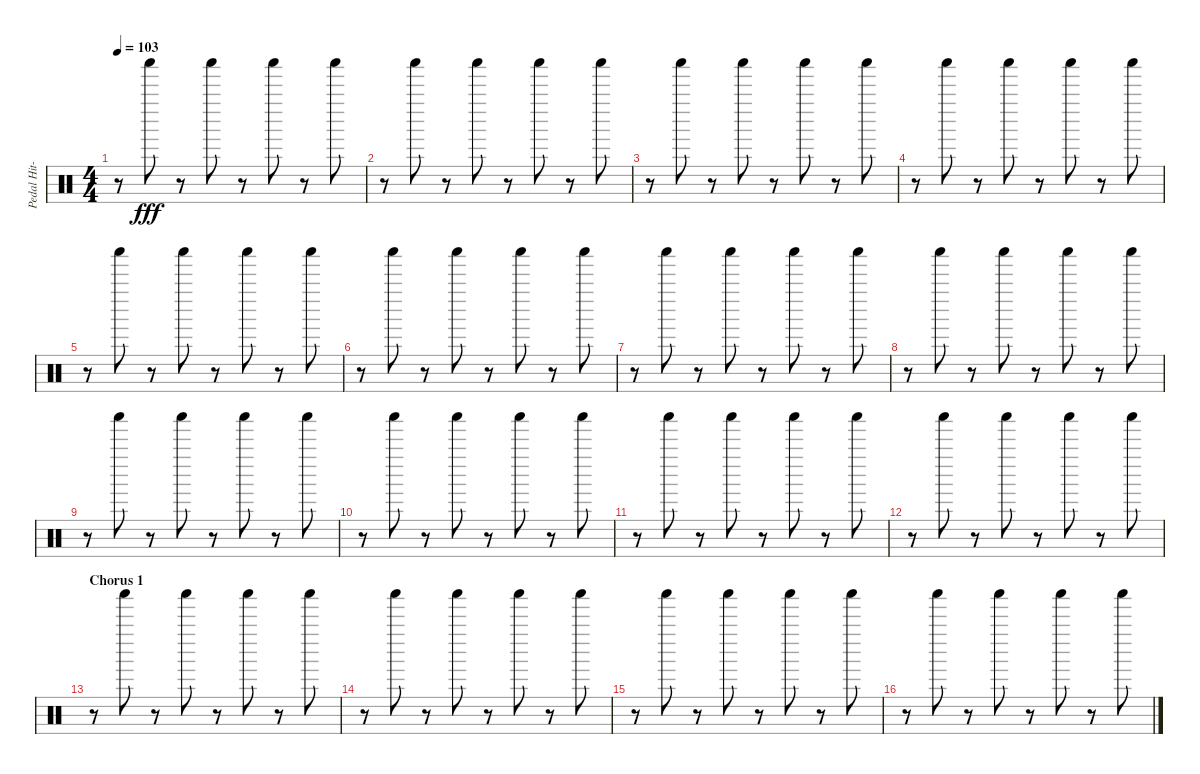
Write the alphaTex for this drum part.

\track ("Pedal Hit-Hat" "Pedal Hit-") {instrument percussion}
\staff {score}
\articulation defaults
\ts (4 4)
\tempo 103
\clef neutral
\ks c
r.8{dy fff} "Shaker (hit)".8 r.8 "Shaker (hit)".8 r.8 "Shaker (hit)".8 r.8 "Shaker (hit)".8 |
r.8 "Shaker (hit)".8 r.8 "Shaker (hit)".8 r.8 "Shaker (hit)".8 r.8 "Shaker (hit)".8 |
r.8 "Shaker (hit)".8 r.8 "Shaker (hit)".8 r.8 "Shaker (hit)".8 r.8 "Shaker (hit)".8 |
r.8 "Shaker (hit)".8 r.8 "Shaker (hit)".8 r.8 "Shaker (hit)".8 r.8 "Shaker (hit)".8 |
r.8 "Shaker (hit)".8 r.8 "Shaker (hit)".8 r.8 "Shaker (hit)".8 r.8 "Shaker (hit)".8 |
r.8 "Shaker (hit)".8 r.8 "Shaker (hit)".8 r.8 "Shaker (hit)".8 r.8 "Shaker (hit)".8 |
r.8 "Shaker (hit)".8 r.8 "Shaker (hit)".8 r.8 "Shaker (hit)".8 r.8 "Shaker (hit)".8 |
r.8 "Shaker (hit)".8 r.8 "Shaker (hit)".8 r.8 "Shaker (hit)".8 r.8 "Shaker (hit)".8 |
r.8 "Shaker (hit)".8 r.8 "Shaker (hit)".8 r.8 "Shaker (hit)".8 r.8 "Shaker (hit)".8 |
r.8 "Shaker (hit)".8 r.8 "Shaker (hit)".8 r.8 "Shaker (hit)".8 r.8 "Shaker (hit)".8 |
r.8 "Shaker (hit)".8 r.8 "Shaker (hit)".8 r.8 "Shaker (hit)".8 r.8 "Shaker (hit)".8 |
r.8 "Shaker (hit)".8 r.8 "Shaker (hit)".8 r.8 "Shaker (hit)".8 r.8 "Shaker (hit)".8 |
\section ("" "Chorus 1")
r.8 "Shaker (hit)".8 r.8 "Shaker (hit)".8 r.8 "Shaker (hit)".8 r.8 "Shaker (hit)".8 |
r.8 "Shaker (hit)".8 r.8 "Shaker (hit)".8 r.8 "Shaker (hit)".8 r.8 "Shaker (hit)".8 |
r.8 "Shaker (hit)".8 r.8 "Shaker (hit)".8 r.8 "Shaker (hit)".8 r.8 "Shaker (hit)".8 |
r.8 "Shaker (hit)".8 r.8 "Shaker (hit)".8 r.8 "Shaker (hit)".8 r.8 "Shaker (hit)".8
